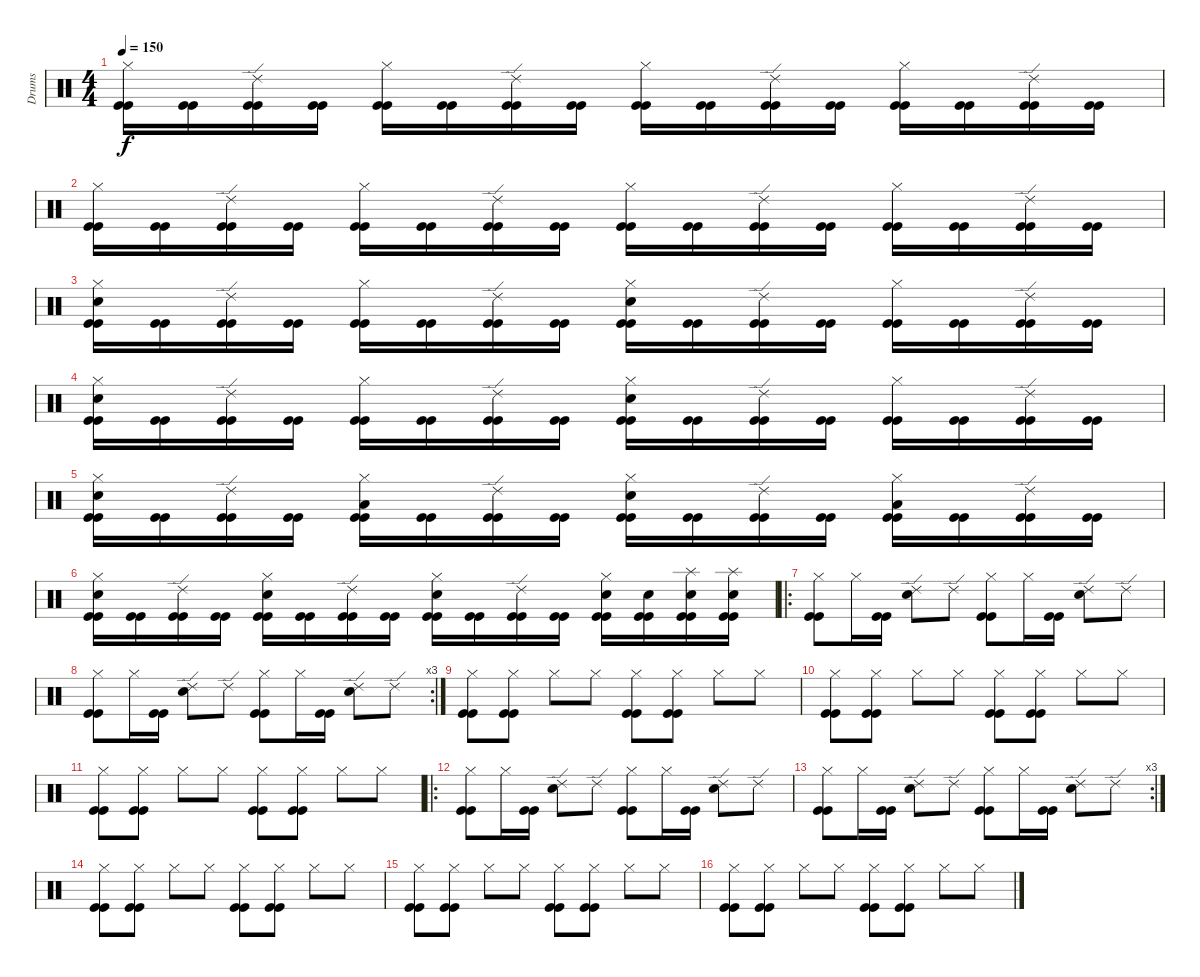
\track ("Drums" "Drums") {instrument percussion}
\staff {score}
\articulation defaults
\ts (4 4)
\tempo 150
\clef neutral
\ks c
("Hi-Hat (closed)" "Kick (hit)" "Kick (hit)").16{dy f} ("Kick (hit)" "Kick (hit)").16 ("Ride (edge) 2" "Kick (hit)" "Kick (hit)").16 ("Kick (hit)" "Kick (hit)").16 ("Hi-Hat (closed)" "Kick (hit)" "Kick (hit)").16 ("Kick (hit)" "Kick (hit)").16 ("Ride (edge) 2" "Kick (hit)" "Kick (hit)").16 ("Kick (hit)" "Kick (hit)").16 ("Hi-Hat (closed)" "Kick (hit)" "Kick (hit)").16 ("Kick (hit)" "Kick (hit)").16 ("Ride (edge) 2" "Kick (hit)" "Kick (hit)").16 ("Kick (hit)" "Kick (hit)").16 ("Hi-Hat (closed)" "Kick (hit)" "Kick (hit)").16 ("Kick (hit)" "Kick (hit)").16 ("Ride (edge) 2" "Kick (hit)" "Kick (hit)").16 ("Kick (hit)" "Kick (hit)").16 |
("Hi-Hat (closed)" "Kick (hit)" "Kick (hit)").16 ("Kick (hit)" "Kick (hit)").16 ("Ride (edge) 2" "Kick (hit)" "Kick (hit)").16 ("Kick (hit)" "Kick (hit)").16 ("Hi-Hat (closed)" "Kick (hit)" "Kick (hit)").16 ("Kick (hit)" "Kick (hit)").16 ("Ride (edge) 2" "Kick (hit)" "Kick (hit)").16 ("Kick (hit)" "Kick (hit)").16 ("Hi-Hat (closed)" "Kick (hit)" "Kick (hit)").16 ("Kick (hit)" "Kick (hit)").16 ("Ride (edge) 2" "Kick (hit)" "Kick (hit)").16 ("Kick (hit)" "Kick (hit)").16 ("Hi-Hat (closed)" "Kick (hit)" "Kick (hit)").16 ("Kick (hit)" "Kick (hit)").16 ("Ride (edge) 2" "Kick (hit)" "Kick (hit)").16 ("Kick (hit)" "Kick (hit)").16 |
("Hi-Hat (closed)" "Snare (hit) 2" "Kick (hit)" "Kick (hit)").16 ("Kick (hit)" "Kick (hit)").16 ("Ride (edge) 2" "Kick (hit)" "Kick (hit)").16 ("Kick (hit)" "Kick (hit)").16 ("Hi-Hat (closed)" "Kick (hit)" "Kick (hit)").16 ("Kick (hit)" "Kick (hit)").16 ("Ride (edge) 2" "Kick (hit)" "Kick (hit)").16 ("Kick (hit)" "Kick (hit)").16 ("Hi-Hat (closed)" "Snare (hit) 2" "Kick (hit)" "Kick (hit)").16 ("Kick (hit)" "Kick (hit)").16 ("Ride (edge) 2" "Kick (hit)" "Kick (hit)").16 ("Kick (hit)" "Kick (hit)").16 ("Hi-Hat (closed)" "Kick (hit)" "Kick (hit)").16 ("Kick (hit)" "Kick (hit)").16 ("Ride (edge) 2" "Kick (hit)" "Kick (hit)").16 ("Kick (hit)" "Kick (hit)").16 |
("Hi-Hat (closed)" "Snare (hit) 2" "Kick (hit)" "Kick (hit)").16 ("Kick (hit)" "Kick (hit)").16 ("Ride (edge) 2" "Kick (hit)" "Kick (hit)").16 ("Kick (hit)" "Kick (hit)").16 ("Hi-Hat (closed)" "Kick (hit)" "Kick (hit)").16 ("Kick (hit)" "Kick (hit)").16 ("Ride (edge) 2" "Kick (hit)" "Kick (hit)").16 ("Kick (hit)" "Kick (hit)").16 ("Hi-Hat (closed)" "Snare (hit) 2" "Kick (hit)" "Kick (hit)").16 ("Kick (hit)" "Kick (hit)").16 ("Ride (edge) 2" "Kick (hit)" "Kick (hit)").16 ("Kick (hit)" "Kick (hit)").16 ("Hi-Hat (closed)" "Kick (hit)" "Kick (hit)").16 ("Kick (hit)" "Kick (hit)").16 ("Ride (edge) 2" "Kick (hit)" "Kick (hit)").16 ("Kick (hit)" "Kick (hit)").16 |
("Hi-Hat (closed)" "Snare (hit) 2" "Kick (hit)" "Kick (hit)").16 ("Kick (hit)" "Kick (hit)").16 ("Ride (edge) 2" "Kick (hit)" "Kick (hit)").16 ("Kick (hit)" "Kick (hit)").16 ("Hi-Hat (closed)" "Low Tom (hit)" "Kick (hit)" "Kick (hit)").16 ("Kick (hit)" "Kick (hit)").16 ("Ride (edge) 2" "Kick (hit)" "Kick (hit)").16 ("Kick (hit)" "Kick (hit)").16 ("Hi-Hat (closed)" "Snare (hit) 2" "Kick (hit)" "Kick (hit)").16 ("Kick (hit)" "Kick (hit)").16 ("Ride (edge) 2" "Kick (hit)" "Kick (hit)").16 ("Kick (hit)" "Kick (hit)").16 ("Hi-Hat (closed)" "Low Tom (hit)" "Kick (hit)" "Kick (hit)").16 ("Kick (hit)" "Kick (hit)").16 ("Ride (edge) 2" "Kick (hit)" "Kick (hit)").16 ("Kick (hit)" "Kick (hit)").16 |
("Hi-Hat (closed)" "Snare (hit) 2" "Kick (hit)" "Kick (hit)").16 ("Kick (hit)" "Kick (hit)").16 ("Ride (edge) 2" "Kick (hit)" "Kick (hit)").16 ("Kick (hit)" "Kick (hit)").16 ("Hi-Hat (closed)" "Snare (hit) 2" "Kick (hit)" "Kick (hit)").16 ("Kick (hit)" "Kick (hit)").16 ("Ride (edge) 2" "Kick (hit)" "Kick (hit)").16 ("Kick (hit)" "Kick (hit)").16 ("Hi-Hat (closed)" "Snare (hit) 2" "Kick (hit)" "Kick (hit)").16 ("Kick (hit)" "Kick (hit)").16 ("Ride (edge) 2" "Kick (hit)" "Kick (hit)").16 ("Kick (hit)" "Kick (hit)").16 ("Hi-Hat (closed)" "Snare (hit) 2" "Kick (hit)" "Kick (hit)").16 ("Snare (hit) 2" "Kick (hit)" "Kick (hit)").16 ("Splash (hit)" "Snare (hit) 2" "Kick (hit)" "Kick (hit)").16 ("Splash (hit)" "Snare (hit) 2" "Kick (hit)" "Kick (hit)").16 |
\ro
("Hi-Hat (closed)" "Kick (hit)" "Kick (hit)").8 "Hi-Hat (closed)".16 ("Kick (hit)" "Kick (hit)").16 ("Ride (edge) 2" "Snare (hit) 2").8 "Ride (edge) 2".8 ("Hi-Hat (closed)" "Kick (hit)" "Kick (hit)").8 "Hi-Hat (closed)".16 ("Kick (hit)" "Kick (hit)").16 ("Ride (edge) 2" "Snare (hit) 2").8 "Ride (edge) 2".8 |
\rc 3
("Hi-Hat (closed)" "Kick (hit)" "Kick (hit)").8 "Hi-Hat (closed)".16 ("Kick (hit)" "Kick (hit)").16 ("Ride (edge) 2" "Snare (hit) 2").8 "Ride (edge) 2".8 ("Hi-Hat (closed)" "Kick (hit)" "Kick (hit)").8 "Hi-Hat (closed)".16 ("Kick (hit)" "Kick (hit)").16 ("Ride (edge) 2" "Snare (hit) 2").8 "Ride (edge) 2".8 |
("Hi-Hat (closed)" "Kick (hit)" "Kick (hit)").8 ("Hi-Hat (closed)" "Kick (hit)" "Kick (hit)").8 "Hi-Hat (closed)".8 "Hi-Hat (closed)".8 ("Hi-Hat (closed)" "Kick (hit)" "Kick (hit)").8 ("Hi-Hat (closed)" "Kick (hit)" "Kick (hit)").8 "Hi-Hat (closed)".8 "Hi-Hat (closed)".8 |
("Hi-Hat (closed)" "Kick (hit)" "Kick (hit)").8 ("Hi-Hat (closed)" "Kick (hit)" "Kick (hit)").8 "Hi-Hat (closed)".8 "Hi-Hat (closed)".8 ("Hi-Hat (closed)" "Kick (hit)" "Kick (hit)").8 ("Hi-Hat (closed)" "Kick (hit)" "Kick (hit)").8 "Hi-Hat (closed)".8 "Hi-Hat (closed)".8 |
("Hi-Hat (closed)" "Kick (hit)" "Kick (hit)").8 ("Hi-Hat (closed)" "Kick (hit)" "Kick (hit)").8 "Hi-Hat (closed)".8 "Hi-Hat (closed)".8 ("Hi-Hat (closed)" "Kick (hit)" "Kick (hit)").8 ("Hi-Hat (closed)" "Kick (hit)" "Kick (hit)").8 "Hi-Hat (closed)".8 "Hi-Hat (closed)".8 |
\ro
("Hi-Hat (closed)" "Kick (hit)" "Kick (hit)").8 "Hi-Hat (closed)".16 ("Kick (hit)" "Kick (hit)").16 ("Ride (edge) 2" "Snare (hit) 2").8 "Ride (edge) 2".8 ("Hi-Hat (closed)" "Kick (hit)" "Kick (hit)").8 "Hi-Hat (closed)".16 ("Kick (hit)" "Kick (hit)").16 ("Ride (edge) 2" "Snare (hit) 2").8 "Ride (edge) 2".8 |
\rc 3
("Hi-Hat (closed)" "Kick (hit)" "Kick (hit)").8 "Hi-Hat (closed)".16 ("Kick (hit)" "Kick (hit)").16 ("Ride (edge) 2" "Snare (hit) 2").8 "Ride (edge) 2".8 ("Hi-Hat (closed)" "Kick (hit)" "Kick (hit)").8 "Hi-Hat (closed)".16 ("Kick (hit)" "Kick (hit)").16 ("Ride (edge) 2" "Snare (hit) 2").8 "Ride (edge) 2".8 |
("Hi-Hat (closed)" "Kick (hit)" "Kick (hit)").8 ("Hi-Hat (closed)" "Kick (hit)" "Kick (hit)").8 "Hi-Hat (closed)".8 "Hi-Hat (closed)".8 ("Hi-Hat (closed)" "Kick (hit)" "Kick (hit)").8 ("Hi-Hat (closed)" "Kick (hit)" "Kick (hit)").8 "Hi-Hat (closed)".8 "Hi-Hat (closed)".8 |
("Hi-Hat (closed)" "Kick (hit)" "Kick (hit)").8 ("Hi-Hat (closed)" "Kick (hit)" "Kick (hit)").8 "Hi-Hat (closed)".8 "Hi-Hat (closed)".8 ("Hi-Hat (closed)" "Kick (hit)" "Kick (hit)").8 ("Hi-Hat (closed)" "Kick (hit)" "Kick (hit)").8 "Hi-Hat (closed)".8 "Hi-Hat (closed)".8 |
("Hi-Hat (closed)" "Kick (hit)" "Kick (hit)").8 ("Hi-Hat (closed)" "Kick (hit)" "Kick (hit)").8 "Hi-Hat (closed)".8 "Hi-Hat (closed)".8 ("Hi-Hat (closed)" "Kick (hit)" "Kick (hit)").8 ("Hi-Hat (closed)" "Kick (hit)" "Kick (hit)").8 "Hi-Hat (closed)".8 "Hi-Hat (closed)".8
